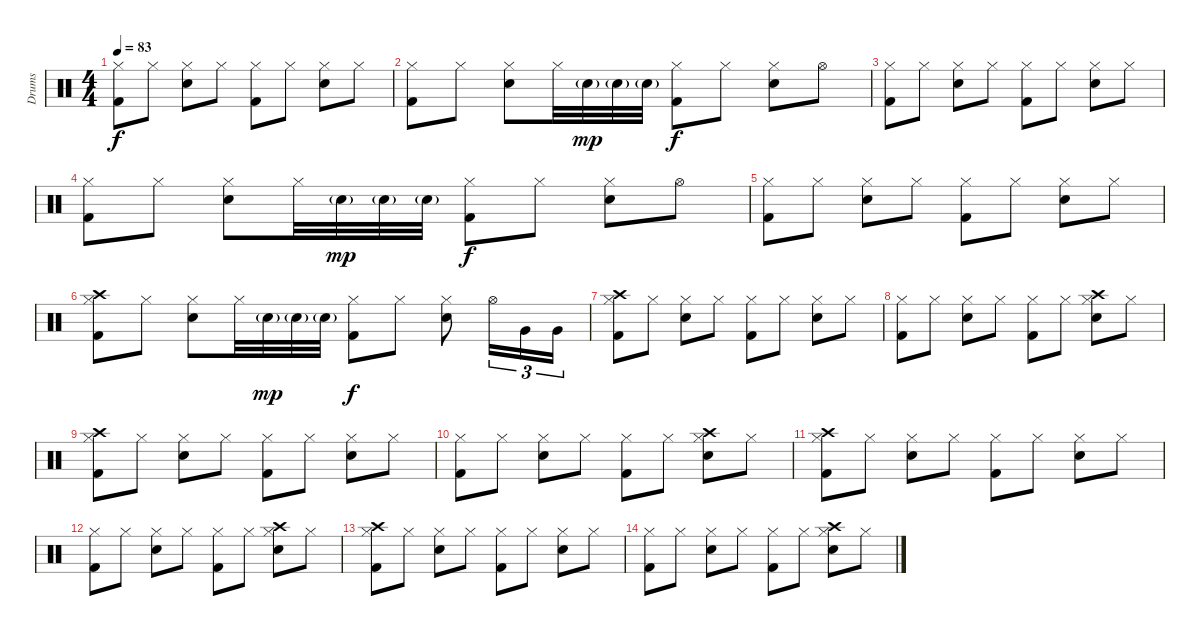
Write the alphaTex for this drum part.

\track ("Drums" "Drums") {instrument percussion}
\staff {score}
\articulation defaults
\ts (4 4)
\tempo 83
\clef neutral
\ks c
("Hi-Hat (closed)" "Kick (hit) 2").8{dy f} "Hi-Hat (closed)".8 ("Hi-Hat (closed)" "Snare (hit) 2").8 "Hi-Hat (closed)".8 ("Hi-Hat (closed)" "Kick (hit) 2").8 "Hi-Hat (closed)".8 ("Hi-Hat (closed)" "Snare (hit) 2").8 "Hi-Hat (closed)".8 |
("Hi-Hat (closed)" "Kick (hit) 2").8 "Hi-Hat (closed)".8 ("Hi-Hat (closed)" "Snare (hit) 2").8 "Hi-Hat (closed)".32 "Snare (hit) 2"{g}.32{dy mp} "Snare (hit) 2"{g}.32 "Snare (hit) 2"{g}.32 ("Hi-Hat (closed)" "Kick (hit) 2").8{dy f} "Hi-Hat (closed)".8 ("Hi-Hat (closed)" "Snare (hit) 2").8 "Hi-Hat (open)".8 |
("Hi-Hat (closed)" "Kick (hit) 2").8 "Hi-Hat (closed)".8 ("Hi-Hat (closed)" "Snare (hit) 2").8 "Hi-Hat (closed)".8 ("Hi-Hat (closed)" "Kick (hit) 2").8 "Hi-Hat (closed)".8 ("Hi-Hat (closed)" "Snare (hit) 2").8 "Hi-Hat (closed)".8 |
("Hi-Hat (closed)" "Kick (hit) 2").8 "Hi-Hat (closed)".8 ("Hi-Hat (closed)" "Snare (hit) 2").8 "Hi-Hat (closed)".32 "Snare (hit) 2"{g}.32{dy mp} "Snare (hit) 2"{g}.32 "Snare (hit) 2"{g}.32 ("Hi-Hat (closed)" "Kick (hit) 2").8{dy f} "Hi-Hat (closed)".8 ("Hi-Hat (closed)" "Snare (hit) 2").8 "Hi-Hat (open)".8 |
("Hi-Hat (closed)" "Kick (hit) 2").8 "Hi-Hat (closed)".8 ("Hi-Hat (closed)" "Snare (hit) 2").8 "Hi-Hat (closed)".8 ("Hi-Hat (closed)" "Kick (hit) 2").8 "Hi-Hat (closed)".8 ("Hi-Hat (closed)" "Snare (hit) 2").8 "Hi-Hat (closed)".8 |
("Crash high (hit)" "Hi-Hat (closed)" "Kick (hit) 2").8 "Hi-Hat (closed)".8 ("Hi-Hat (closed)" "Snare (hit) 2").8 "Hi-Hat (closed)".32 "Snare (hit) 2"{g}.32{dy mp} "Snare (hit) 2"{g}.32 "Snare (hit) 2"{g}.32 ("Hi-Hat (closed)" "Kick (hit) 2").8{dy f} "Hi-Hat (closed)".8 ("Hi-Hat (closed)" "Snare (hit) 2").8 "Hi-Hat (open)".16{tu (3 2)} "Very Low Tom (hit)".16{tu (3 2)} "Very Low Tom (hit)".16{tu (3 2)} |
("Crash high (hit)" "Hi-Hat (closed)" "Kick (hit) 2").8 "Hi-Hat (closed)".8 ("Hi-Hat (closed)" "Snare (hit) 2").8 "Hi-Hat (closed)".8 ("Hi-Hat (closed)" "Kick (hit) 2").8 "Hi-Hat (closed)".8 ("Hi-Hat (closed)" "Snare (hit) 2").8 "Hi-Hat (closed)".8 |
("Hi-Hat (closed)" "Kick (hit) 2").8 "Hi-Hat (closed)".8 ("Hi-Hat (closed)" "Snare (hit) 2").8 "Hi-Hat (closed)".8 ("Hi-Hat (closed)" "Kick (hit) 2").8 "Hi-Hat (closed)".8 ("Crash high (hit)" "Hi-Hat (closed)" "Snare (hit) 2").8 "Hi-Hat (closed)".8 |
("Crash high (hit)" "Hi-Hat (closed)" "Kick (hit) 2").8 "Hi-Hat (closed)".8 ("Hi-Hat (closed)" "Snare (hit) 2").8 "Hi-Hat (closed)".8 ("Hi-Hat (closed)" "Kick (hit) 2").8 "Hi-Hat (closed)".8 ("Hi-Hat (closed)" "Snare (hit) 2").8 "Hi-Hat (closed)".8 |
("Hi-Hat (closed)" "Kick (hit) 2").8 "Hi-Hat (closed)".8 ("Hi-Hat (closed)" "Snare (hit) 2").8 "Hi-Hat (closed)".8 ("Hi-Hat (closed)" "Kick (hit) 2").8 "Hi-Hat (closed)".8 ("Crash high (hit)" "Hi-Hat (closed)" "Snare (hit) 2").8 "Hi-Hat (closed)".8 |
("Crash high (hit)" "Hi-Hat (closed)" "Kick (hit) 2").8 "Hi-Hat (closed)".8 ("Hi-Hat (closed)" "Snare (hit) 2").8 "Hi-Hat (closed)".8 ("Hi-Hat (closed)" "Kick (hit) 2").8 "Hi-Hat (closed)".8 ("Hi-Hat (closed)" "Snare (hit) 2").8 "Hi-Hat (closed)".8 |
("Hi-Hat (closed)" "Kick (hit) 2").8 "Hi-Hat (closed)".8 ("Hi-Hat (closed)" "Snare (hit) 2").8 "Hi-Hat (closed)".8 ("Hi-Hat (closed)" "Kick (hit) 2").8 "Hi-Hat (closed)".8 ("Crash high (hit)" "Hi-Hat (closed)" "Snare (hit) 2").8 "Hi-Hat (closed)".8 |
("Crash high (hit)" "Hi-Hat (closed)" "Kick (hit) 2").8 "Hi-Hat (closed)".8 ("Hi-Hat (closed)" "Snare (hit) 2").8 "Hi-Hat (closed)".8 ("Hi-Hat (closed)" "Kick (hit) 2").8 "Hi-Hat (closed)".8 ("Hi-Hat (closed)" "Snare (hit) 2").8 "Hi-Hat (closed)".8 |
("Hi-Hat (closed)" "Kick (hit) 2").8 "Hi-Hat (closed)".8 ("Hi-Hat (closed)" "Snare (hit) 2").8 "Hi-Hat (closed)".8 ("Hi-Hat (closed)" "Kick (hit) 2").8 "Hi-Hat (closed)".8 ("Crash high (hit)" "Hi-Hat (closed)" "Snare (hit) 2").8 "Hi-Hat (closed)".8
